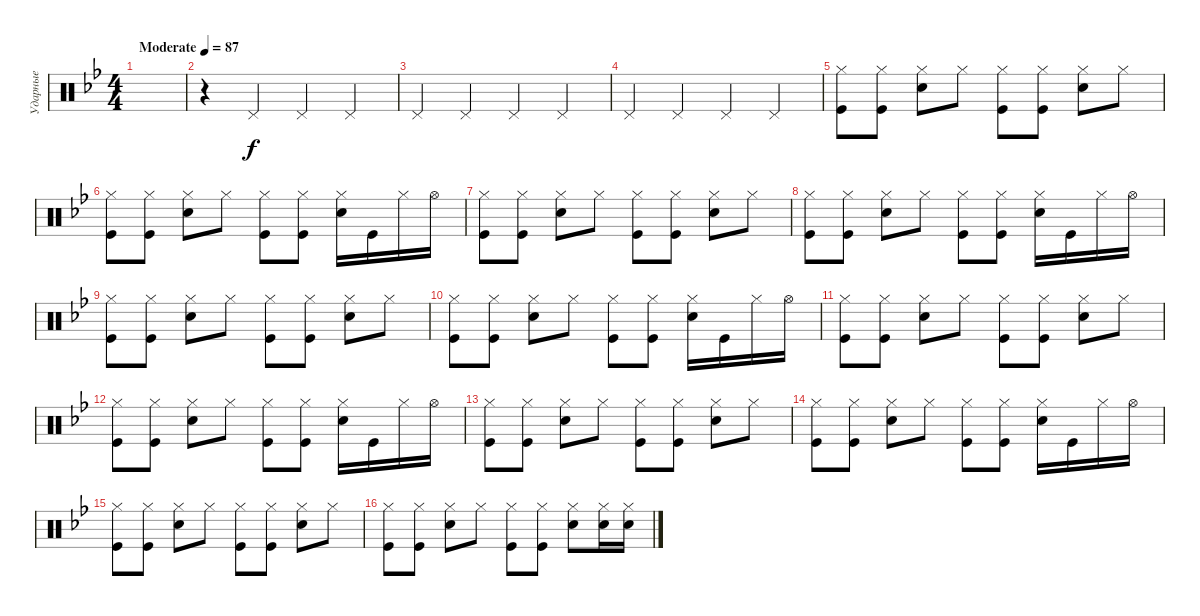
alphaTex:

\track ("Ударные" "Ударные") {instrument percussion}
\staff {score}
\articulation defaults
\ts (4 4)
\tempo (87 "Moderate")
\clef neutral
\ks bb
|
r.4 "Pedal Hi-Hat (hit)".4 "Pedal Hi-Hat (hit)".4 "Pedal Hi-Hat (hit)".4 |
"Pedal Hi-Hat (hit)".4 "Pedal Hi-Hat (hit)".4 "Pedal Hi-Hat (hit)".4 "Pedal Hi-Hat (hit)".4 |
"Pedal Hi-Hat (hit)".4 "Pedal Hi-Hat (hit)".4 "Pedal Hi-Hat (hit)".4 "Pedal Hi-Hat (hit)".4 |
("Hi-Hat (closed)" "Kick (hit)").8 ("Hi-Hat (closed)" "Kick (hit)").8 ("Hi-Hat (closed)" "Snare (hit) 2").8 "Hi-Hat (closed)".8 ("Hi-Hat (closed)" "Kick (hit)").8 ("Hi-Hat (closed)" "Kick (hit)").8 ("Hi-Hat (closed)" "Snare (hit) 2").8 "Hi-Hat (closed)".8 |
("Hi-Hat (closed)" "Kick (hit)").8 ("Hi-Hat (closed)" "Kick (hit)").8 ("Hi-Hat (closed)" "Snare (hit) 2").8 "Hi-Hat (closed)".8 ("Hi-Hat (closed)" "Kick (hit)").8 ("Hi-Hat (closed)" "Kick (hit)").8 ("Hi-Hat (closed)" "Snare (hit) 2").16 "Kick (hit)".16 "Hi-Hat (closed)".16 "Hi-Hat (open)".16 |
("Hi-Hat (closed)" "Kick (hit)").8 ("Hi-Hat (closed)" "Kick (hit)").8 ("Hi-Hat (closed)" "Snare (hit) 2").8 "Hi-Hat (closed)".8 ("Hi-Hat (closed)" "Kick (hit)").8 ("Hi-Hat (closed)" "Kick (hit)").8 ("Hi-Hat (closed)" "Snare (hit) 2").8 "Hi-Hat (closed)".8 |
("Hi-Hat (closed)" "Kick (hit)").8 ("Hi-Hat (closed)" "Kick (hit)").8 ("Hi-Hat (closed)" "Snare (hit) 2").8 "Hi-Hat (closed)".8 ("Hi-Hat (closed)" "Kick (hit)").8 ("Hi-Hat (closed)" "Kick (hit)").8 ("Hi-Hat (closed)" "Snare (hit) 2").16 "Kick (hit)".16 "Hi-Hat (closed)".16 "Hi-Hat (open)".16 |
("Hi-Hat (closed)" "Kick (hit)").8 ("Hi-Hat (closed)" "Kick (hit)").8 ("Hi-Hat (closed)" "Snare (hit) 2").8 "Hi-Hat (closed)".8 ("Hi-Hat (closed)" "Kick (hit)").8 ("Hi-Hat (closed)" "Kick (hit)").8 ("Hi-Hat (closed)" "Snare (hit) 2").8 "Hi-Hat (closed)".8 |
("Hi-Hat (closed)" "Kick (hit)").8 ("Hi-Hat (closed)" "Kick (hit)").8 ("Hi-Hat (closed)" "Snare (hit) 2").8 "Hi-Hat (closed)".8 ("Hi-Hat (closed)" "Kick (hit)").8 ("Hi-Hat (closed)" "Kick (hit)").8 ("Hi-Hat (closed)" "Snare (hit) 2").16 "Kick (hit)".16 "Hi-Hat (closed)".16 "Hi-Hat (open)".16 |
("Hi-Hat (closed)" "Kick (hit)").8 ("Hi-Hat (closed)" "Kick (hit)").8 ("Hi-Hat (closed)" "Snare (hit) 2").8 "Hi-Hat (closed)".8 ("Hi-Hat (closed)" "Kick (hit)").8 ("Hi-Hat (closed)" "Kick (hit)").8 ("Hi-Hat (closed)" "Snare (hit) 2").8 "Hi-Hat (closed)".8 |
("Hi-Hat (closed)" "Kick (hit)").8 ("Hi-Hat (closed)" "Kick (hit)").8 ("Hi-Hat (closed)" "Snare (hit) 2").8 "Hi-Hat (closed)".8 ("Hi-Hat (closed)" "Kick (hit)").8 ("Hi-Hat (closed)" "Kick (hit)").8 ("Hi-Hat (closed)" "Snare (hit) 2").16 "Kick (hit)".16 "Hi-Hat (closed)".16 "Hi-Hat (open)".16 |
("Hi-Hat (closed)" "Kick (hit)").8 ("Hi-Hat (closed)" "Kick (hit)").8 ("Hi-Hat (closed)" "Snare (hit) 2").8 "Hi-Hat (closed)".8 ("Hi-Hat (closed)" "Kick (hit)").8 ("Hi-Hat (closed)" "Kick (hit)").8 ("Hi-Hat (closed)" "Snare (hit) 2").8 "Hi-Hat (closed)".8 |
("Hi-Hat (closed)" "Kick (hit)").8 ("Hi-Hat (closed)" "Kick (hit)").8 ("Hi-Hat (closed)" "Snare (hit) 2").8 "Hi-Hat (closed)".8 ("Hi-Hat (closed)" "Kick (hit)").8 ("Hi-Hat (closed)" "Kick (hit)").8 ("Hi-Hat (closed)" "Snare (hit) 2").16 "Kick (hit)".16 "Hi-Hat (closed)".16 "Hi-Hat (open)".16 |
("Hi-Hat (closed)" "Kick (hit)").8 ("Hi-Hat (closed)" "Kick (hit)").8 ("Hi-Hat (closed)" "Snare (hit) 2").8 "Hi-Hat (closed)".8 ("Hi-Hat (closed)" "Kick (hit)").8 ("Hi-Hat (closed)" "Kick (hit)").8 ("Hi-Hat (closed)" "Snare (hit) 2").8 "Hi-Hat (closed)".8 |
("Hi-Hat (closed)" "Kick (hit)").8 ("Hi-Hat (closed)" "Kick (hit)").8 ("Hi-Hat (closed)" "Snare (hit) 2").8 "Hi-Hat (closed)".8 ("Hi-Hat (closed)" "Kick (hit)").8 ("Hi-Hat (closed)" "Kick (hit)").8 ("Hi-Hat (closed)" "Snare (hit) 2").8 ("Hi-Hat (closed)" "Snare (hit) 2").16 ("Hi-Hat (closed)" "Snare (hit) 2").16
